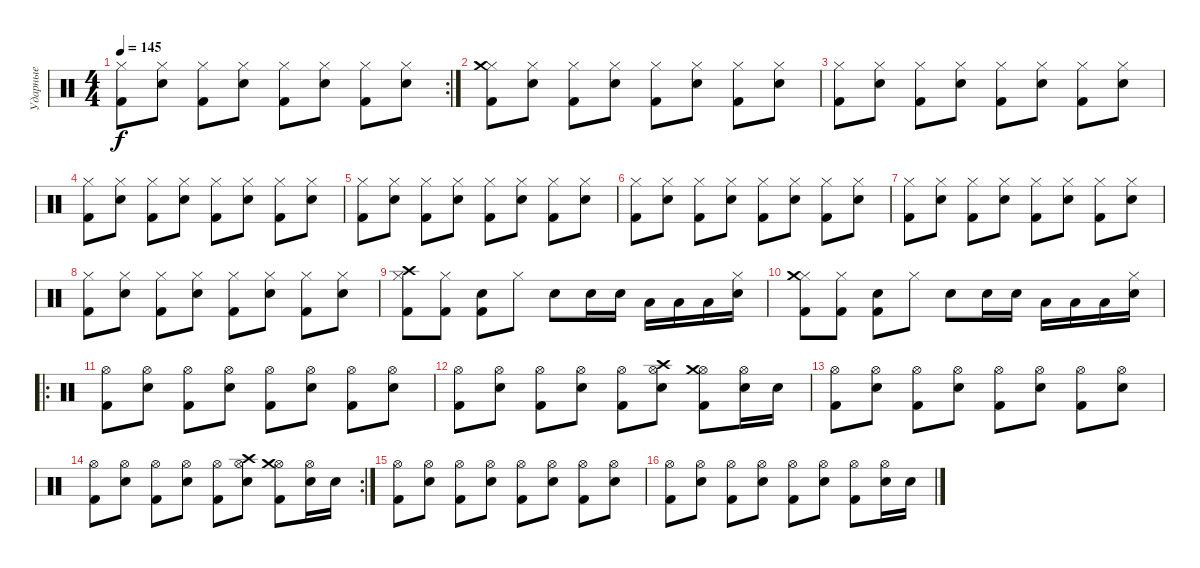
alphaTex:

\track ("Ударные" "Ударные") {instrument percussion}
\staff {score}
\articulation defaults
\rc 2
\ts (4 4)
\tempo 145
\clef neutral
\ks c
("Kick (hit) 2" "Hi-Hat (closed)").8{dy f} ("Snare (hit) 2" "Hi-Hat (closed)").8 ("Kick (hit) 2" "Hi-Hat (closed)").8 ("Snare (hit) 2" "Hi-Hat (closed)").8 ("Kick (hit) 2" "Hi-Hat (closed)").8 ("Snare (hit) 2" "Hi-Hat (closed)").8 ("Kick (hit) 2" "Hi-Hat (closed)").8 ("Snare (hit) 2" "Hi-Hat (closed)").8 |
("Kick (hit) 2" "Hi-Hat (closed)" "Crash medium (hit)").8 ("Snare (hit) 2" "Hi-Hat (closed)").8 ("Kick (hit) 2" "Hi-Hat (closed)").8 ("Snare (hit) 2" "Hi-Hat (closed)").8 ("Kick (hit) 2" "Hi-Hat (closed)").8 ("Snare (hit) 2" "Hi-Hat (closed)").8 ("Kick (hit) 2" "Hi-Hat (closed)").8 ("Snare (hit) 2" "Hi-Hat (closed)").8 |
("Kick (hit) 2" "Hi-Hat (closed)").8 ("Snare (hit) 2" "Hi-Hat (closed)").8 ("Kick (hit) 2" "Hi-Hat (closed)").8 ("Snare (hit) 2" "Hi-Hat (closed)").8 ("Kick (hit) 2" "Hi-Hat (closed)").8 ("Snare (hit) 2" "Hi-Hat (closed)").8 ("Kick (hit) 2" "Hi-Hat (closed)").8 ("Snare (hit) 2" "Hi-Hat (closed)").8 |
("Kick (hit) 2" "Hi-Hat (closed)").8 ("Snare (hit) 2" "Hi-Hat (closed)").8 ("Kick (hit) 2" "Hi-Hat (closed)").8 ("Snare (hit) 2" "Hi-Hat (closed)").8 ("Kick (hit) 2" "Hi-Hat (closed)").8 ("Snare (hit) 2" "Hi-Hat (closed)").8 ("Kick (hit) 2" "Hi-Hat (closed)").8 ("Snare (hit) 2" "Hi-Hat (closed)").8 |
("Kick (hit) 2" "Hi-Hat (closed)").8 ("Snare (hit) 2" "Hi-Hat (closed)").8 ("Kick (hit) 2" "Hi-Hat (closed)").8 ("Snare (hit) 2" "Hi-Hat (closed)").8 ("Kick (hit) 2" "Hi-Hat (closed)").8 ("Snare (hit) 2" "Hi-Hat (closed)").8 ("Kick (hit) 2" "Hi-Hat (closed)").8 ("Snare (hit) 2" "Hi-Hat (closed)").8 |
("Kick (hit) 2" "Hi-Hat (closed)").8 ("Snare (hit) 2" "Hi-Hat (closed)").8 ("Kick (hit) 2" "Hi-Hat (closed)").8 ("Snare (hit) 2" "Hi-Hat (closed)").8 ("Kick (hit) 2" "Hi-Hat (closed)").8 ("Snare (hit) 2" "Hi-Hat (closed)").8 ("Kick (hit) 2" "Hi-Hat (closed)").8 ("Snare (hit) 2" "Hi-Hat (closed)").8 |
("Kick (hit) 2" "Hi-Hat (closed)").8 ("Snare (hit) 2" "Hi-Hat (closed)").8 ("Kick (hit) 2" "Hi-Hat (closed)").8 ("Snare (hit) 2" "Hi-Hat (closed)").8 ("Kick (hit) 2" "Hi-Hat (closed)").8 ("Snare (hit) 2" "Hi-Hat (closed)").8 ("Kick (hit) 2" "Hi-Hat (closed)").8 ("Snare (hit) 2" "Hi-Hat (closed)").8 |
("Kick (hit) 2" "Hi-Hat (closed)").8 ("Snare (hit) 2" "Hi-Hat (closed)").8 ("Kick (hit) 2" "Hi-Hat (closed)").8 ("Snare (hit) 2" "Hi-Hat (closed)").8 ("Kick (hit) 2" "Hi-Hat (closed)").8 ("Snare (hit) 2" "Hi-Hat (closed)").8 ("Kick (hit) 2" "Hi-Hat (closed)").8 ("Snare (hit) 2" "Hi-Hat (closed)").8 |
("Hi-Hat (closed)" "Kick (hit) 2" "Crash high (hit)").8 ("Hi-Hat (closed)" "Kick (hit) 2").8 ("Kick (hit) 2" "Snare (hit) 2").8 "Hi-Hat (closed)".8 "Electric Snare (hit)".8 "Electric Snare (hit)".16 "Electric Snare (hit)".16 "Low Tom (hit)".16 "Low Tom (hit)".16 "Low Tom (hit)".16 ("Hi-Hat (closed)" "Snare (hit) 2").16 |
("Hi-Hat (closed)" "Kick (hit) 2" "Crash medium (hit)").8 ("Hi-Hat (closed)" "Kick (hit) 2").8 ("Kick (hit) 2" "Snare (hit) 2").8 "Hi-Hat (closed)".8 "Electric Snare (hit)".8 "Electric Snare (hit)".16 "Electric Snare (hit)".16 "Low Tom (hit)".16 "Low Tom (hit)".16 "Low Tom (hit)".16 ("Hi-Hat (closed)" "Snare (hit) 2").16 |
\ro
("Kick (hit) 2" "Hi-Hat (open)").8 ("Snare (hit) 2" "Hi-Hat (open)").8 ("Kick (hit) 2" "Hi-Hat (open)").8 ("Snare (hit) 2" "Hi-Hat (open)").8 ("Kick (hit) 2" "Hi-Hat (open)").8 ("Snare (hit) 2" "Hi-Hat (open)").8 ("Kick (hit) 2" "Hi-Hat (open)").8 ("Snare (hit) 2" "Hi-Hat (open)").8 |
("Kick (hit) 2" "Hi-Hat (open)").8 ("Snare (hit) 2" "Hi-Hat (open)").8 ("Kick (hit) 2" "Hi-Hat (open)").8 ("Snare (hit) 2" "Hi-Hat (open)").8 ("Kick (hit) 2" "Hi-Hat (open)").8 ("Snare (hit) 2" "Hi-Hat (open)" "Crash high (hit)").8 ("Kick (hit) 2" "Hi-Hat (open)" "Crash medium (hit)").8 ("Snare (hit) 2" "Hi-Hat (open)").16 "Snare (hit) 2".16 |
("Kick (hit) 2" "Hi-Hat (open)").8 ("Snare (hit) 2" "Hi-Hat (open)").8 ("Kick (hit) 2" "Hi-Hat (open)").8 ("Snare (hit) 2" "Hi-Hat (open)").8 ("Kick (hit) 2" "Hi-Hat (open)").8 ("Snare (hit) 2" "Hi-Hat (open)").8 ("Kick (hit) 2" "Hi-Hat (open)").8 ("Snare (hit) 2" "Hi-Hat (open)").8 |
\rc 2
("Kick (hit) 2" "Hi-Hat (open)").8 ("Snare (hit) 2" "Hi-Hat (open)").8 ("Kick (hit) 2" "Hi-Hat (open)").8 ("Snare (hit) 2" "Hi-Hat (open)").8 ("Kick (hit) 2" "Hi-Hat (open)").8 ("Snare (hit) 2" "Hi-Hat (open)" "Crash high (hit)").8 ("Kick (hit) 2" "Hi-Hat (open)" "Crash medium (hit)").8 ("Snare (hit) 2" "Hi-Hat (open)").16 "Snare (hit) 2".16 |
("Kick (hit) 2" "Hi-Hat (open)").8 ("Snare (hit) 2" "Hi-Hat (open)").8 ("Kick (hit) 2" "Hi-Hat (open)").8 ("Snare (hit) 2" "Hi-Hat (open)").8 ("Kick (hit) 2" "Hi-Hat (open)").8 ("Snare (hit) 2" "Hi-Hat (open)").8 ("Kick (hit) 2" "Hi-Hat (open)").8 ("Snare (hit) 2" "Hi-Hat (open)").8 |
("Kick (hit) 2" "Hi-Hat (open)").8 ("Snare (hit) 2" "Hi-Hat (open)").8 ("Kick (hit) 2" "Hi-Hat (open)").8 ("Snare (hit) 2" "Hi-Hat (open)").8 ("Kick (hit) 2" "Hi-Hat (open)").8 ("Snare (hit) 2" "Hi-Hat (open)").8 ("Kick (hit) 2" "Hi-Hat (open)").8 ("Snare (hit) 2" "Hi-Hat (open)").16 "Snare (hit) 2".16
